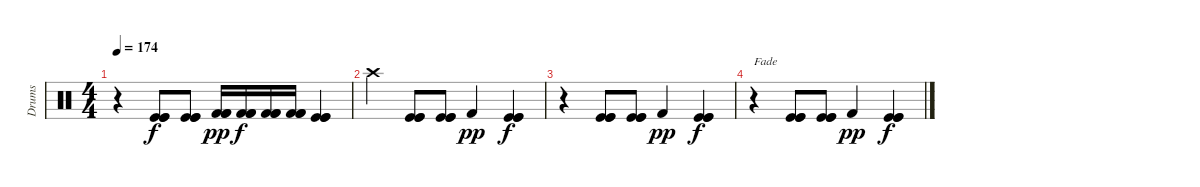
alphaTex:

\track ("Drums" "Drums") {instrument percussion}
\staff {score}
\articulation defaults
\ts (4 4)
\tempo 174
\clef neutral
\ks c
r.4{dy f} ("Kick (hit)" "Kick (hit)" "Kick (hit)").8 ("Kick (hit)" "Kick (hit)" "Kick (hit)").8 ("Kick (hit) 2" "Kick (hit) 2" "Kick (hit) 2").16{dy pp} ("Kick (hit) 2" "Kick (hit) 2" "Kick (hit) 2").16{dy f} ("Kick (hit) 2" "Kick (hit) 2" "Kick (hit) 2").16 ("Kick (hit) 2" "Kick (hit) 2" "Kick (hit) 2").16 ("Kick (hit)" "Kick (hit)" "Kick (hit)").4 |
"Crash high (hit)".4{volume 0} ("Kick (hit)" "Kick (hit)" "Kick (hit)").8 ("Kick (hit)" "Kick (hit)" "Kick (hit)").8 "Kick (hit) 2".4{dy pp} ("Kick (hit)" "Kick (hit)" "Kick (hit)").4{dy f} |
r.4 ("Kick (hit)" "Kick (hit)" "Kick (hit)").8 ("Kick (hit)" "Kick (hit)" "Kick (hit)").8 "Kick (hit) 2".4{dy pp} ("Kick (hit)" "Kick (hit)" "Kick (hit)").4{dy f} |
r.4{txt "Fade"} ("Kick (hit)" "Kick (hit)" "Kick (hit)").8 ("Kick (hit)" "Kick (hit)" "Kick (hit)").8 "Kick (hit) 2".4{dy pp} ("Kick (hit)" "Kick (hit)" "Kick (hit)").4{dy f}
